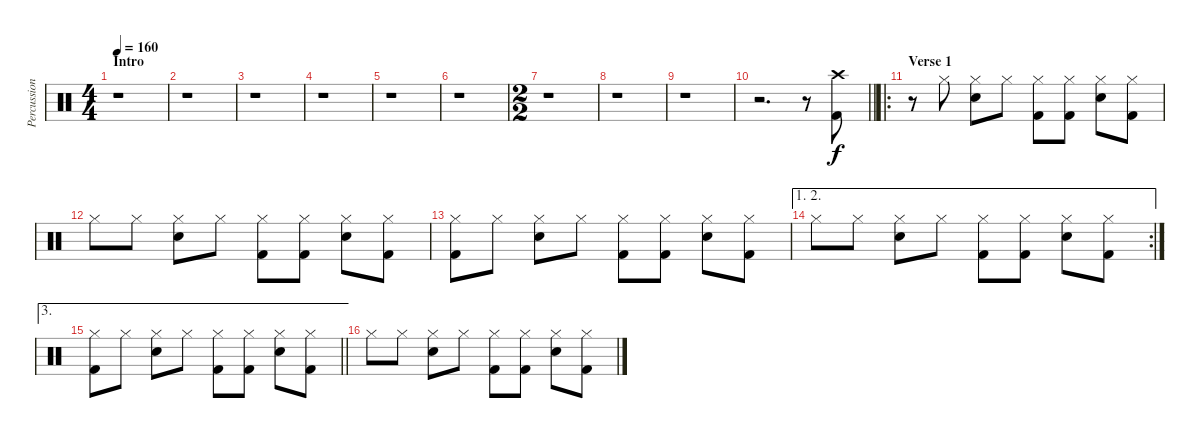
\track ("Percussion" "Percussion") {instrument percussion}
\staff {score}
\articulation defaults
\ts (4 4)
\section ("" "Intro")
\tempo 160
\clef neutral
\ks c
r.1{dy f} |
r.1 |
r.1 |
r.1 |
r.1 |
r.1 |
\ts (2 2)
r.1 |
r.1 |
r.1 |
\barLineRight lightlight
r.2{d} r.8 ("Crash high (hit)" "Kick (hit) 2").8 |
\ro
\section ("" "Verse 1")
r.8 "Hi-Hat (closed)".8 ("Hi-Hat (closed)" "Snare (hit) 2").8 "Hi-Hat (closed)".8 ("Hi-Hat (closed)" "Kick (hit) 2").8 ("Hi-Hat (closed)" "Kick (hit) 2").8 ("Hi-Hat (closed)" "Snare (hit) 2").8 ("Hi-Hat (closed)" "Kick (hit) 2").8 |
"Hi-Hat (closed)".8 "Hi-Hat (closed)".8 ("Hi-Hat (closed)" "Snare (hit) 2").8 "Hi-Hat (closed)".8 ("Hi-Hat (closed)" "Kick (hit) 2").8 ("Hi-Hat (closed)" "Kick (hit) 2").8 ("Hi-Hat (closed)" "Snare (hit) 2").8 ("Hi-Hat (closed)" "Kick (hit) 2").8 |
("Hi-Hat (closed)" "Kick (hit) 2").8 "Hi-Hat (closed)".8 ("Hi-Hat (closed)" "Snare (hit) 2").8 "Hi-Hat (closed)".8 ("Hi-Hat (closed)" "Kick (hit) 2").8 ("Hi-Hat (closed)" "Kick (hit) 2").8 ("Hi-Hat (closed)" "Snare (hit) 2").8 ("Hi-Hat (closed)" "Kick (hit) 2").8 |
\ae (1 2)
\rc 2 "Hi-Hat (closed)".8 "Hi-Hat (closed)".8
("Hi-Hat (closed)" "Snare (hit) 2").8 "Hi-Hat (closed)".8 ("Hi-Hat (closed)" "Kick (hit) 2").8 ("Hi-Hat (closed)" "Kick (hit) 2").8 ("Hi-Hat (closed)" "Snare (hit) 2").8 ("Hi-Hat (closed)" "Kick (hit) 2").8 |
\ae 3
\barLineRight lightlight
("Hi-Hat (closed)" "Kick (hit) 2").8 "Hi-Hat (closed)".8 ("Hi-Hat (closed)" "Snare (hit) 2").8 "Hi-Hat (closed)".8 ("Hi-Hat (closed)" "Kick (hit) 2").8 ("Hi-Hat (closed)" "Kick (hit) 2").8 ("Hi-Hat (closed)" "Snare (hit) 2").8 ("Hi-Hat (closed)" "Kick (hit) 2").8 |
"Hi-Hat (closed)".8 "Hi-Hat (closed)".8 ("Hi-Hat (closed)" "Snare (hit) 2").8 "Hi-Hat (closed)".8 ("Hi-Hat (closed)" "Kick (hit) 2").8 ("Hi-Hat (closed)" "Kick (hit) 2").8 ("Hi-Hat (closed)" "Snare (hit) 2").8 ("Hi-Hat (closed)" "Kick (hit) 2").8
